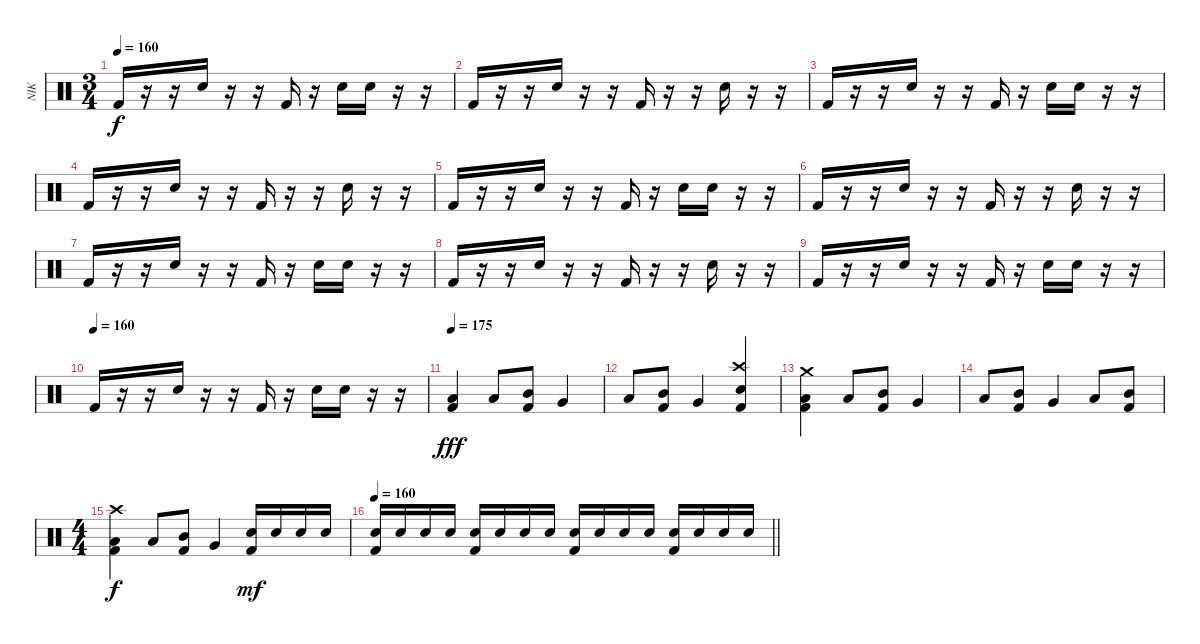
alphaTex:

\track ("NIK" "NIK") {instrument percussion}
\staff {score}
\articulation defaults
\ts (3 4)
\tempo 160
\clef neutral
\ks c "Kick (hit) 2".16{dy f}
r.16 r.16 "Snare (hit) 2".16 r.16 r.16 "Kick (hit) 2".16 r.16 "Snare (hit) 2".16 "Snare (hit) 2".16 r.16 r.16 |
"Kick (hit) 2".16 r.16 r.16 "Snare (hit) 2".16 r.16 r.16 "Kick (hit) 2".16 r.16 r.16 "Snare (hit) 2".16 r.16 r.16 |
"Kick (hit) 2".16 r.16 r.16 "Snare (hit) 2".16 r.16 r.16 "Kick (hit) 2".16 r.16 "Snare (hit) 2".16 "Snare (hit) 2".16 r.16 r.16 |
"Kick (hit) 2".16 r.16 r.16 "Snare (hit) 2".16 r.16 r.16 "Kick (hit) 2".16 r.16 r.16 "Snare (hit) 2".16 r.16 r.16 |
"Kick (hit) 2".16 r.16 r.16 "Snare (hit) 2".16 r.16 r.16 "Kick (hit) 2".16 r.16 "Snare (hit) 2".16 "Snare (hit) 2".16 r.16 r.16 |
"Kick (hit) 2".16 r.16 r.16 "Snare (hit) 2".16 r.16 r.16 "Kick (hit) 2".16 r.16 r.16 "Snare (hit) 2".16 r.16 r.16 |
"Kick (hit) 2".16 r.16 r.16 "Snare (hit) 2".16 r.16 r.16 "Kick (hit) 2".16 r.16 "Snare (hit) 2".16 "Snare (hit) 2".16 r.16 r.16 |
"Kick (hit) 2".16 r.16 r.16 "Snare (hit) 2".16 r.16 r.16 "Kick (hit) 2".16 r.16 r.16 "Snare (hit) 2".16 r.16 r.16 |
"Kick (hit) 2".16 r.16 r.16 "Snare (hit) 2".16 r.16 r.16 "Kick (hit) 2".16 r.16 "Snare (hit) 2".16 "Snare (hit) 2".16 r.16 r.16 |
\tempo (160)
"Kick (hit) 2".16 r.16 r.16 "Snare (hit) 2".16 r.16 r.16 "Kick (hit) 2".16 r.16 "Snare (hit) 2".16 "Snare (hit) 2".16 r.16 r.16 |
\tempo 175
("Low Tom (hit)" "Kick (hit) 2").4{dy fff} "Low Tom (hit)".8 ("Mid Tom (hit)" "Kick (hit) 2").8 "Very Low Tom (hit)".4 |
"Low Tom (hit)".8 ("Mid Tom (hit)" "Kick (hit) 2").8 "Very Low Tom (hit)".4 ("Crash high (hit)" "Electric Snare (hit)" "Kick (hit) 2").4 |
("Crash medium (hit)" "Low Tom (hit)" "Kick (hit) 2").4 "Low Tom (hit)".8 ("Mid Tom (hit)" "Kick (hit) 2").8 "Very Low Tom (hit)".4 |
"Low Tom (hit)".8 ("Mid Tom (hit)" "Kick (hit) 2").8 "Very Low Tom (hit)".4 "Low Tom (hit)".8 ("Mid Tom (hit)" "Kick (hit) 2").8 |
\ts (4 4)
("Crash high (hit)" "Low Tom (hit)" "Kick (hit) 2").4{dy f} "Low Tom (hit)".8 ("Mid Tom (hit)" "Kick (hit) 2").8 "Very Low Tom (hit)".4 ("Electric Snare (hit)" "Kick (hit) 2").16{dy mf} "Electric Snare (hit)".16 "Electric Snare (hit)".16 "Electric Snare (hit)".16 |
\tempo 160
\barLineRight lightlight
("Electric Snare (hit)" "Kick (hit) 2").16 "Electric Snare (hit)".16 "Electric Snare (hit)".16 "Electric Snare (hit)".16 ("Electric Snare (hit)" "Kick (hit) 2").16 "Electric Snare (hit)".16 "Electric Snare (hit)".16 "Electric Snare (hit)".16 ("Electric Snare (hit)" "Kick (hit) 2").16 "Electric Snare (hit)".16 "Electric Snare (hit)".16 "Electric Snare (hit)".16 ("Electric Snare (hit)" "Kick (hit) 2").16 "Electric Snare (hit)".16 "Electric Snare (hit)".16 "Electric Snare (hit)".16
